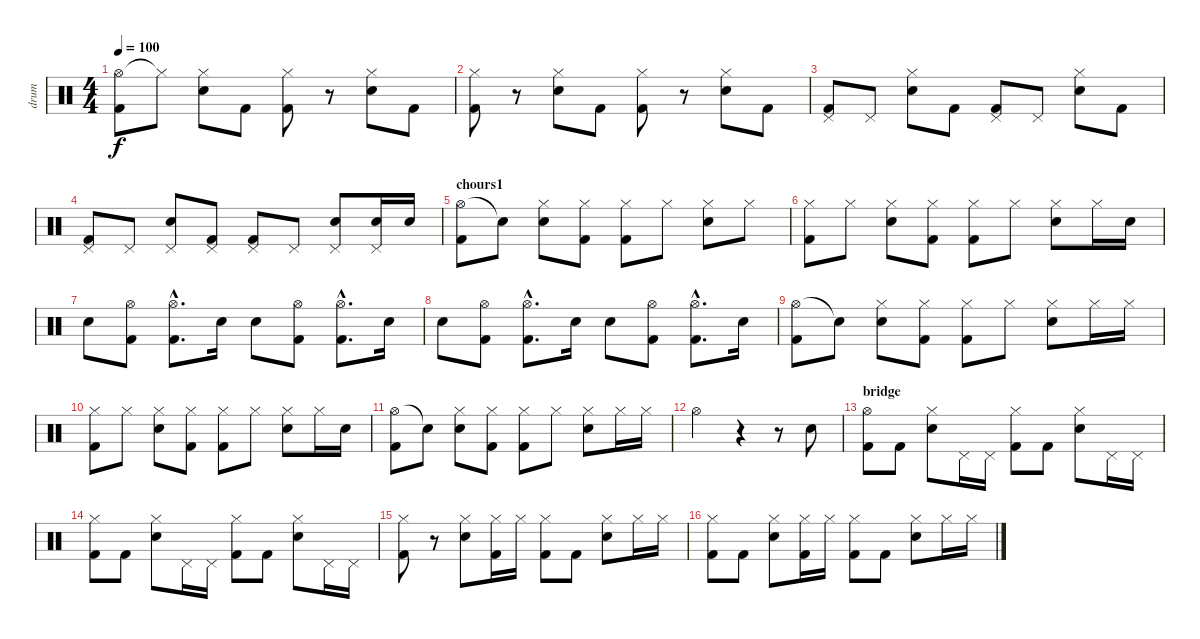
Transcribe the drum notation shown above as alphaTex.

\track ("drum" "drum") {instrument percussion}
\staff {score}
\articulation defaults
\ts (4 4)
\tempo 100
\clef neutral
\ks c
("Hi-Hat (open)" "Kick (hit) 2").8{dy f} "Hi-Hat (closed)"{t}.8 ("Hi-Hat (closed)" "Electric Snare (hit)").8 "Kick (hit) 2".8 ("Hi-Hat (closed)" "Kick (hit) 2").8 r.8 ("Hi-Hat (closed)" "Electric Snare (hit)").8 "Kick (hit) 2".8 |
("Hi-Hat (closed)" "Kick (hit) 2").8 r.8 ("Hi-Hat (closed)" "Electric Snare (hit)").8 "Kick (hit) 2".8 ("Hi-Hat (closed)" "Kick (hit) 2").8 r.8 ("Hi-Hat (closed)" "Electric Snare (hit)").8 "Kick (hit) 2".8 |
("Pedal Hi-Hat (hit)" "Kick (hit) 2").8 "Pedal Hi-Hat (hit)".8 ("Hi-Hat (closed)" "Electric Snare (hit)").8 "Kick (hit) 2".8 ("Pedal Hi-Hat (hit)" "Kick (hit) 2").8 "Pedal Hi-Hat (hit)".8 ("Hi-Hat (closed)" "Electric Snare (hit)").8 "Kick (hit) 2".8 |
("Pedal Hi-Hat (hit)" "Kick (hit) 2").8 "Pedal Hi-Hat (hit)".8 ("Pedal Hi-Hat (hit)" "Electric Snare (hit)").8 ("Pedal Hi-Hat (hit)" "Kick (hit) 2").8 ("Pedal Hi-Hat (hit)" "Kick (hit) 2").8 "Pedal Hi-Hat (hit)".8 ("Pedal Hi-Hat (hit)" "Electric Snare (hit)").8 ("Pedal Hi-Hat (hit)" "Electric Snare (hit)").16 "Electric Snare (hit)".16 |
\section ("" "chours1")
("Hi-Hat (open)" "Kick (hit) 2").8 "Snare (hit)"{t}.8 ("Hi-Hat (closed)" "Electric Snare (hit)").8 ("Hi-Hat (closed)" "Kick (hit) 2").8 ("Hi-Hat (closed)" "Kick (hit) 2").8 "Hi-Hat (closed)".8 ("Hi-Hat (closed)" "Electric Snare (hit)").8 "Hi-Hat (closed)".8 |
("Hi-Hat (closed)" "Kick (hit) 2").8 "Hi-Hat (closed)".8 ("Hi-Hat (closed)" "Electric Snare (hit)").8 ("Hi-Hat (closed)" "Kick (hit) 2").8 ("Hi-Hat (closed)" "Kick (hit) 2").8 "Hi-Hat (closed)".8 ("Hi-Hat (closed)" "Electric Snare (hit)").8 "Hi-Hat (closed)".16 "Electric Snare (hit)".16 |
"Electric Snare (hit)".8 ("Hi-Hat (open)" "Kick (hit) 2").8 ("Hi-Hat (open)"{hac} "Kick (hit) 2"{hac}).8{d} "Electric Snare (hit)".16 "Electric Snare (hit)".8 ("Hi-Hat (open)" "Kick (hit) 2").8 ("Hi-Hat (open)"{hac} "Kick (hit) 2"{hac}).8{d} "Electric Snare (hit)".16 |
"Electric Snare (hit)".8 ("Hi-Hat (open)" "Kick (hit) 2").8 ("Hi-Hat (open)"{hac} "Kick (hit) 2"{hac}).8{d} "Electric Snare (hit)".16 "Electric Snare (hit)".8 ("Hi-Hat (open)" "Kick (hit) 2").8 ("Hi-Hat (open)"{hac} "Kick (hit) 2"{hac}).8{d} "Electric Snare (hit)".16 |
("Hi-Hat (open)" "Kick (hit) 2").8 "Snare (hit)"{t}.8 ("Hi-Hat (closed)" "Electric Snare (hit)").8 ("Hi-Hat (closed)" "Kick (hit) 2").8 ("Hi-Hat (closed)" "Kick (hit) 2").8 "Hi-Hat (closed)".8 ("Hi-Hat (closed)" "Electric Snare (hit)").8 "Hi-Hat (closed)".16 "Hi-Hat (closed)".16 |
("Hi-Hat (closed)" "Kick (hit) 2").8 "Hi-Hat (closed)".8 ("Hi-Hat (closed)" "Electric Snare (hit)").8 ("Hi-Hat (closed)" "Kick (hit) 2").8 ("Hi-Hat (closed)" "Kick (hit) 2").8 "Hi-Hat (closed)".8 ("Hi-Hat (closed)" "Electric Snare (hit)").8 "Hi-Hat (closed)".16 "Electric Snare (hit)".16 |
("Hi-Hat (open)" "Kick (hit) 2").8 "Snare (hit)"{t}.8 ("Hi-Hat (closed)" "Electric Snare (hit)").8 ("Hi-Hat (closed)" "Kick (hit) 2").8 ("Hi-Hat (closed)" "Kick (hit) 2").8 "Hi-Hat (closed)".8 ("Hi-Hat (closed)" "Electric Snare (hit)").8 "Hi-Hat (closed)".16 "Hi-Hat (closed)".16 |
"Hi-Hat (open)".2 r.4 r.8 "Electric Snare (hit)".8 |
\section ("" "bridge")
("Hi-Hat (open)" "Kick (hit) 2").8 "Kick (hit) 2".8 ("Hi-Hat (closed)" "Electric Snare (hit)").8 "Pedal Hi-Hat (hit)".16 "Pedal Hi-Hat (hit)".16 ("Hi-Hat (closed)" "Kick (hit) 2").8 "Kick (hit) 2".8 ("Hi-Hat (closed)" "Electric Snare (hit)").8 "Pedal Hi-Hat (hit)".16 "Pedal Hi-Hat (hit)".16 |
("Hi-Hat (closed)" "Kick (hit) 2").8 "Kick (hit) 2".8 ("Hi-Hat (closed)" "Electric Snare (hit)").8 "Pedal Hi-Hat (hit)".16 "Pedal Hi-Hat (hit)".16 ("Hi-Hat (closed)" "Kick (hit) 2").8 "Kick (hit) 2".8 ("Hi-Hat (closed)" "Electric Snare (hit)").8 "Pedal Hi-Hat (hit)".16 "Pedal Hi-Hat (hit)".16 |
("Hi-Hat (closed)" "Kick (hit) 2").8 r.8 ("Hi-Hat (closed)" "Electric Snare (hit)").8 ("Hi-Hat (closed)" "Kick (hit) 2").16 "Hi-Hat (closed)".16 ("Hi-Hat (closed)" "Kick (hit) 2").8 "Kick (hit) 2".8 ("Hi-Hat (closed)" "Electric Snare (hit)").8 "Hi-Hat (closed)".16 "Hi-Hat (closed)".16 |
("Hi-Hat (closed)" "Kick (hit) 2").8 "Kick (hit) 2".8 ("Hi-Hat (closed)" "Electric Snare (hit)").8 ("Hi-Hat (closed)" "Kick (hit) 2").16 "Hi-Hat (closed)".16 ("Hi-Hat (closed)" "Kick (hit) 2").8 "Kick (hit) 2".8 ("Hi-Hat (closed)" "Electric Snare (hit)").8 "Hi-Hat (closed)".16 "Hi-Hat (closed)".16
